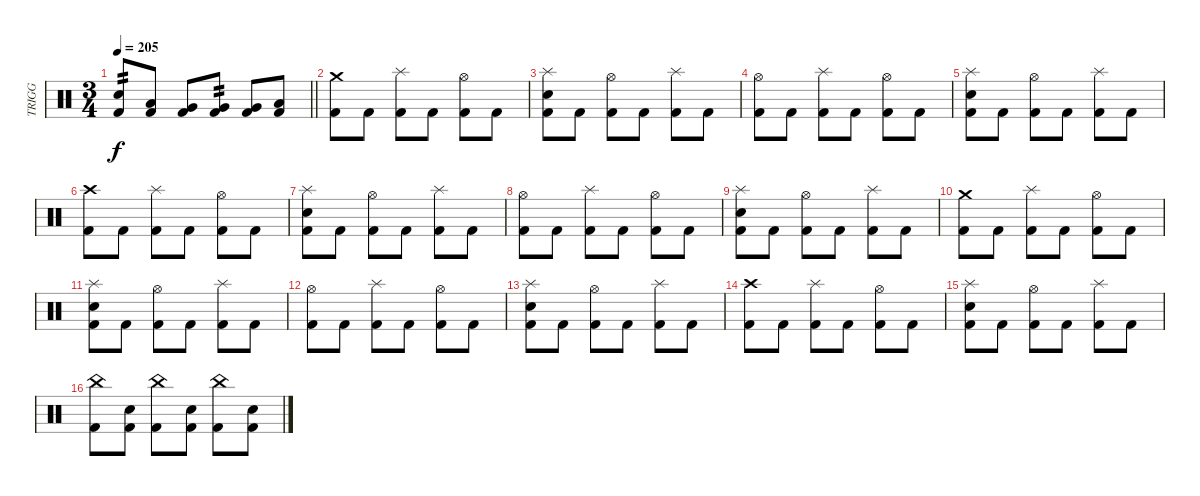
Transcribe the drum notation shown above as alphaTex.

\track ("TRIGG" "TRIGG") {instrument percussion}
\staff {score}
\articulation defaults
\ts (3 4)
\tempo 205
\clef neutral
\barLineRight lightlight
\ks c
("Electric Snare (hit)" "Kick (hit) 2").8{tp 2 dy f} ("Low Tom (hit)" "Kick (hit) 2").8 ("Very Low Tom (hit)" "Kick (hit) 2").8 ("Very Low Tom (hit)" "Kick (hit) 2").8{tp 2} ("Very Low Tom (hit)" "Kick (hit) 2").8 ("Low Floor Tom (hit)" "Kick (hit) 2").8 |
("Crash medium (hit)" "Kick (hit) 2").8 "Kick (hit) 2".8 ("Splash (hit)" "Kick (hit) 2").8 "Kick (hit) 2".8 ("Hi-Hat (open)" "Kick (hit) 2").8 "Kick (hit) 2".8 |
("Splash (hit)" "Electric Snare (hit)" "Kick (hit) 2").8 "Kick (hit) 2".8 ("Hi-Hat (open)" "Kick (hit) 2").8 "Kick (hit) 2".8 ("Splash (hit)" "Kick (hit) 2").8 "Kick (hit) 2".8 |
("Hi-Hat (open)" "Kick (hit) 2").8 "Kick (hit) 2".8 ("Splash (hit)" "Kick (hit) 2").8 "Kick (hit) 2".8 ("Hi-Hat (open)" "Kick (hit) 2").8 "Kick (hit) 2".8 |
("Splash (hit)" "Electric Snare (hit)" "Kick (hit) 2").8 "Kick (hit) 2".8 ("Hi-Hat (open)" "Kick (hit) 2").8 "Kick (hit) 2".8 ("Splash (hit)" "Kick (hit) 2").8 "Kick (hit) 2".8 |
("Crash high (hit)" "Kick (hit) 2").8 "Kick (hit) 2".8 ("Splash (hit)" "Kick (hit) 2").8 "Kick (hit) 2".8 ("Hi-Hat (open)" "Kick (hit) 2").8 "Kick (hit) 2".8 |
("Splash (hit)" "Electric Snare (hit)" "Kick (hit) 2").8 "Kick (hit) 2".8 ("Hi-Hat (open)" "Kick (hit) 2").8 "Kick (hit) 2".8 ("Splash (hit)" "Kick (hit) 2").8 "Kick (hit) 2".8 |
("Hi-Hat (open)" "Kick (hit) 2").8 "Kick (hit) 2".8 ("Splash (hit)" "Kick (hit) 2").8 "Kick (hit) 2".8 ("Hi-Hat (open)" "Kick (hit) 2").8 "Kick (hit) 2".8 |
("Splash (hit)" "Electric Snare (hit)" "Kick (hit) 2").8 "Kick (hit) 2".8 ("Hi-Hat (open)" "Kick (hit) 2").8 "Kick (hit) 2".8 ("Splash (hit)" "Kick (hit) 2").8 "Kick (hit) 2".8 |
("Crash medium (hit)" "Kick (hit) 2").8 "Kick (hit) 2".8 ("Splash (hit)" "Kick (hit) 2").8 "Kick (hit) 2".8 ("Hi-Hat (open)" "Kick (hit) 2").8 "Kick (hit) 2".8 |
("Splash (hit)" "Electric Snare (hit)" "Kick (hit) 2").8 "Kick (hit) 2".8 ("Hi-Hat (open)" "Kick (hit) 2").8 "Kick (hit) 2".8 ("Splash (hit)" "Kick (hit) 2").8 "Kick (hit) 2".8 |
("Hi-Hat (open)" "Kick (hit) 2").8 "Kick (hit) 2".8 ("Splash (hit)" "Kick (hit) 2").8 "Kick (hit) 2".8 ("Hi-Hat (open)" "Kick (hit) 2").8 "Kick (hit) 2".8 |
("Splash (hit)" "Electric Snare (hit)" "Kick (hit) 2").8 "Kick (hit) 2".8 ("Hi-Hat (open)" "Kick (hit) 2").8 "Kick (hit) 2".8 ("Splash (hit)" "Kick (hit) 2").8 "Kick (hit) 2".8 |
("Crash high (hit)" "Kick (hit) 2").8 "Kick (hit) 2".8 ("Splash (hit)" "Kick (hit) 2").8 "Kick (hit) 2".8 ("Hi-Hat (open)" "Kick (hit) 2").8 "Kick (hit) 2".8 |
("Splash (hit)" "Electric Snare (hit)" "Kick (hit) 2").8 "Kick (hit) 2".8 ("Hi-Hat (open)" "Kick (hit) 2").8 "Kick (hit) 2".8 ("Splash (hit)" "Kick (hit) 2").8 "Kick (hit) 2".8 |
("China (hit)" "Kick (hit) 2").8 ("Electric Snare (hit)" "Kick (hit) 2").8 ("China (hit)" "Kick (hit) 2").8 ("Electric Snare (hit)" "Kick (hit) 2").8 ("China (hit)" "Kick (hit) 2").8 ("Electric Snare (hit)" "Kick (hit) 2").8
